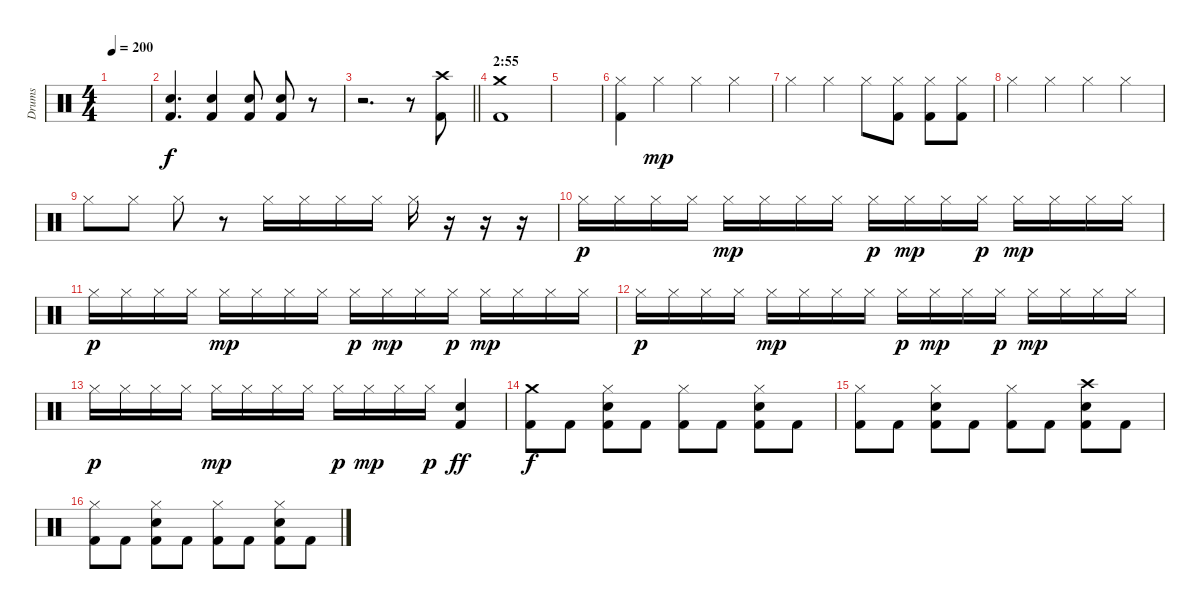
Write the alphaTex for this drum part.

\track ("Drums" "Drums") {instrument percussion}
\staff {score}
\articulation defaults
\ts (4 4)
\tempo 200
\clef neutral
\ks c
|
("Snare (hit) 2" "Kick (hit) 2").4{d} ("Snare (hit) 2" "Kick (hit) 2").4 ("Snare (hit) 2" "Kick (hit) 2").8 ("Snare (hit) 2" "Kick (hit) 2").8 r.8 |
\barLineRight lightlight
r.2{d} r.8 ("Crash high (hit)" "Kick (hit) 2").8 |
\section ("" "2:55")
("Crash medium (hit)" "Kick (hit) 2").1 |
|
("Hi-Hat (closed)" "Kick (hit) 2").4 "Hi-Hat (closed)".4{dy mp} "Hi-Hat (closed)".4 "Hi-Hat (closed)".4 |
"Hi-Hat (closed)".4 "Hi-Hat (closed)".4 "Hi-Hat (closed)".8 ("Hi-Hat (closed)" "Kick (hit) 2").8 ("Hi-Hat (closed)" "Kick (hit) 2").8 ("Hi-Hat (closed)" "Kick (hit) 2").8 |
"Hi-Hat (closed)".4 "Hi-Hat (closed)".4 "Hi-Hat (closed)".4 "Hi-Hat (closed)".4 |
"Hi-Hat (closed)".8 "Hi-Hat (closed)".8 "Hi-Hat (closed)".8 r.8 "Hi-Hat (closed)".16 "Hi-Hat (closed)".16 "Hi-Hat (closed)".16 "Hi-Hat (closed)".16 "Hi-Hat (closed)".16 r.16 r.16 r.16 |
"Hi-Hat (closed)".16{dy p} "Hi-Hat (closed)".16 "Hi-Hat (closed)".16 "Hi-Hat (closed)".16 "Hi-Hat (closed)".16{dy mp} "Hi-Hat (closed)".16 "Hi-Hat (closed)".16 "Hi-Hat (closed)".16 "Hi-Hat (closed)".16{dy p} "Hi-Hat (closed)".16{dy mp} "Hi-Hat (closed)".16 "Hi-Hat (closed)".16{dy p} "Hi-Hat (closed)".16{dy mp} "Hi-Hat (closed)".16 "Hi-Hat (closed)".16 "Hi-Hat (closed)".16 |
"Hi-Hat (closed)".16{dy p} "Hi-Hat (closed)".16 "Hi-Hat (closed)".16 "Hi-Hat (closed)".16 "Hi-Hat (closed)".16{dy mp} "Hi-Hat (closed)".16 "Hi-Hat (closed)".16 "Hi-Hat (closed)".16 "Hi-Hat (closed)".16{dy p} "Hi-Hat (closed)".16{dy mp} "Hi-Hat (closed)".16 "Hi-Hat (closed)".16{dy p} "Hi-Hat (closed)".16{dy mp} "Hi-Hat (closed)".16 "Hi-Hat (closed)".16 "Hi-Hat (closed)".16 |
"Hi-Hat (closed)".16{dy p} "Hi-Hat (closed)".16 "Hi-Hat (closed)".16 "Hi-Hat (closed)".16 "Hi-Hat (closed)".16{dy mp} "Hi-Hat (closed)".16 "Hi-Hat (closed)".16 "Hi-Hat (closed)".16 "Hi-Hat (closed)".16{dy p} "Hi-Hat (closed)".16{dy mp} "Hi-Hat (closed)".16 "Hi-Hat (closed)".16{dy p} "Hi-Hat (closed)".16{dy mp} "Hi-Hat (closed)".16 "Hi-Hat (closed)".16 "Hi-Hat (closed)".16 |
"Hi-Hat (closed)".16{dy p} "Hi-Hat (closed)".16 "Hi-Hat (closed)".16 "Hi-Hat (closed)".16 "Hi-Hat (closed)".16{dy mp} "Hi-Hat (closed)".16 "Hi-Hat (closed)".16 "Hi-Hat (closed)".16 "Hi-Hat (closed)".16{dy p} "Hi-Hat (closed)".16{dy mp} "Hi-Hat (closed)".16 "Hi-Hat (closed)".16{dy p} ("Snare (hit) 2" "Kick (hit) 2").4{dy ff} |
("Crash medium (hit)" "Kick (hit) 2").8{dy f} "Kick (hit) 2".8 ("Hi-Hat (closed)" "Snare (hit) 2" "Kick (hit) 2").8 "Kick (hit) 2".8 ("Hi-Hat (closed)" "Kick (hit) 2").8 "Kick (hit) 2".8 ("Hi-Hat (closed)" "Snare (hit) 2" "Kick (hit) 2").8 "Kick (hit) 2".8 |
("Hi-Hat (closed)" "Kick (hit) 2").8 "Kick (hit) 2".8 ("Hi-Hat (closed)" "Snare (hit) 2" "Kick (hit) 2").8 "Kick (hit) 2".8 ("Hi-Hat (closed)" "Kick (hit) 2").8 "Kick (hit) 2".8 ("Crash high (hit)" "Snare (hit) 2" "Kick (hit) 2").8 "Kick (hit) 2".8 |
("Hi-Hat (closed)" "Kick (hit) 2").8 "Kick (hit) 2".8 ("Hi-Hat (closed)" "Snare (hit) 2" "Kick (hit) 2").8 "Kick (hit) 2".8 ("Hi-Hat (closed)" "Kick (hit) 2").8 "Kick (hit) 2".8 ("Hi-Hat (closed)" "Snare (hit) 2" "Kick (hit) 2").8 "Kick (hit) 2".8
